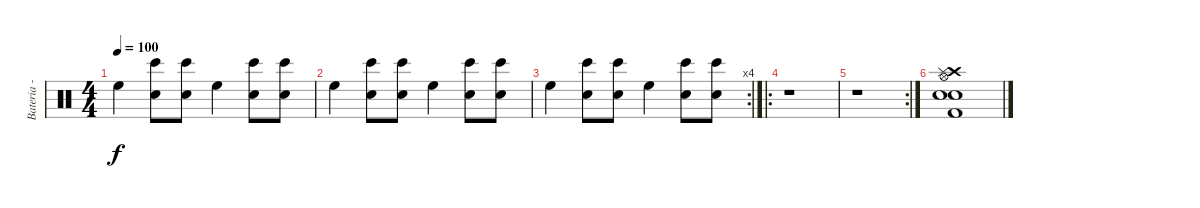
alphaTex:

\track ("Bateria - David" "Bateria - ") {instrument percussion}
\staff {score}
\articulation defaults
\ts (4 4)
\tempo 100
\clef neutral
\ks c "High Floor Tom (hit)".4{dy f}
("Bongo High (hit)" "Electric Snare (hit)").8 ("Bongo High (hit)" "Electric Snare (hit)").8 "High Floor Tom (hit)".4 ("Bongo High (hit)" "Electric Snare (hit)").8 ("Bongo High (hit)" "Electric Snare (hit)").8 |
"High Floor Tom (hit)".4 ("Bongo High (hit)" "Electric Snare (hit)").8 ("Bongo High (hit)" "Electric Snare (hit)").8 "High Floor Tom (hit)".4 ("Bongo High (hit)" "Electric Snare (hit)").8 ("Bongo High (hit)" "Electric Snare (hit)").8 |
\rc 4 "High Floor Tom (hit)".4
("Bongo High (hit)" "Electric Snare (hit)").8 ("Bongo High (hit)" "Electric Snare (hit)").8 "High Floor Tom (hit)".4 ("Bongo High (hit)" "Electric Snare (hit)").8 ("Bongo High (hit)" "Electric Snare (hit)").8 |
\ro
r.1 |
\rc 2
r.1 |
("Crash high (hit)" "Kick (hit) 2" "Splash (hit)" "Snare (hit) 2" "Electric Snare (hit)" "Hi-Hat (open)").1
